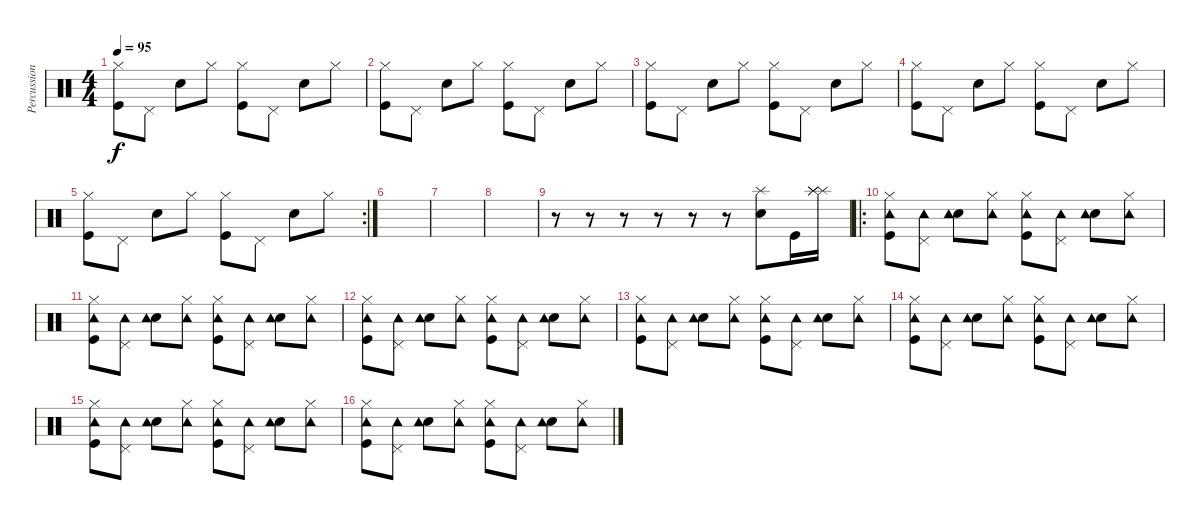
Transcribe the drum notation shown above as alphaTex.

\track ("Percussion" "Percussion") {instrument percussion}
\staff {score}
\articulation defaults
\ts (4 4)
\tempo 95
\clef neutral
\ks c
("Hi-Hat (closed)" "Kick (hit)").8{dy f} "Pedal Hi-Hat (hit)".8 "Electric Snare (hit)".8 "Hi-Hat (closed)".8 ("Hi-Hat (closed)" "Kick (hit)").8 "Pedal Hi-Hat (hit)".8 "Electric Snare (hit)".8 "Hi-Hat (closed)".8 |
("Hi-Hat (closed)" "Kick (hit)").8 "Pedal Hi-Hat (hit)".8 "Electric Snare (hit)".8 "Hi-Hat (closed)".8 ("Hi-Hat (closed)" "Kick (hit)").8 "Pedal Hi-Hat (hit)".8 "Electric Snare (hit)".8 "Hi-Hat (closed)".8 |
("Hi-Hat (closed)" "Kick (hit)").8 "Pedal Hi-Hat (hit)".8 "Electric Snare (hit)".8 "Hi-Hat (closed)".8 ("Hi-Hat (closed)" "Kick (hit)").8 "Pedal Hi-Hat (hit)".8 "Electric Snare (hit)".8 "Hi-Hat (closed)".8 |
("Hi-Hat (closed)" "Kick (hit)").8 "Pedal Hi-Hat (hit)".8 "Electric Snare (hit)".8 "Hi-Hat (closed)".8 ("Hi-Hat (closed)" "Kick (hit)").8 "Pedal Hi-Hat (hit)".8 "Electric Snare (hit)".8 "Hi-Hat (closed)".8 |
\rc 2
("Hi-Hat (closed)" "Kick (hit)").8 "Pedal Hi-Hat (hit)".8 "Electric Snare (hit)".8 "Hi-Hat (closed)".8 ("Hi-Hat (closed)" "Kick (hit)").8 "Pedal Hi-Hat (hit)".8 "Electric Snare (hit)".8 "Hi-Hat (closed)".8 |
|
|
|
r.8 r.8 r.8 r.8 r.8 r.8 ("Splash (hit)" "Snare (hit) 2").8 "Kick (hit)".16 ("Splash (hit)" "Splash (hit)" "Splash (hit)").16 |
\ro
("Hi-Hat (closed)" "Kick (hit)" "Tambourine (hit)").8 ("Pedal Hi-Hat (hit)" "Tambourine (hit)").8 ("Electric Snare (hit)" "Tambourine (hit)").8 ("Hi-Hat (closed)" "Tambourine (hit)").8 ("Hi-Hat (closed)" "Kick (hit)" "Tambourine (hit)").8 ("Pedal Hi-Hat (hit)" "Tambourine (hit)").8 ("Electric Snare (hit)" "Tambourine (hit)").8 ("Hi-Hat (closed)" "Tambourine (hit)").8 |
("Hi-Hat (closed)" "Kick (hit)" "Tambourine (hit)").8 ("Pedal Hi-Hat (hit)" "Tambourine (hit)").8 ("Electric Snare (hit)" "Tambourine (hit)").8 ("Hi-Hat (closed)" "Tambourine (hit)").8 ("Hi-Hat (closed)" "Kick (hit)" "Tambourine (hit)").8 ("Pedal Hi-Hat (hit)" "Tambourine (hit)").8 ("Electric Snare (hit)" "Tambourine (hit)").8 ("Hi-Hat (closed)" "Tambourine (hit)").8 |
("Hi-Hat (closed)" "Kick (hit)" "Tambourine (hit)").8 ("Pedal Hi-Hat (hit)" "Tambourine (hit)").8 ("Electric Snare (hit)" "Tambourine (hit)").8 ("Hi-Hat (closed)" "Tambourine (hit)").8 ("Hi-Hat (closed)" "Kick (hit)" "Tambourine (hit)").8 ("Pedal Hi-Hat (hit)" "Tambourine (hit)").8 ("Electric Snare (hit)" "Tambourine (hit)").8 ("Hi-Hat (closed)" "Tambourine (hit)").8 |
("Hi-Hat (closed)" "Kick (hit)" "Tambourine (hit)").8 ("Pedal Hi-Hat (hit)" "Tambourine (hit)").8 ("Electric Snare (hit)" "Tambourine (hit)").8 ("Hi-Hat (closed)" "Tambourine (hit)").8 ("Hi-Hat (closed)" "Kick (hit)" "Tambourine (hit)").8 ("Pedal Hi-Hat (hit)" "Tambourine (hit)").8 ("Electric Snare (hit)" "Tambourine (hit)").8 ("Hi-Hat (closed)" "Tambourine (hit)").8 |
("Hi-Hat (closed)" "Kick (hit)" "Tambourine (hit)").8 ("Pedal Hi-Hat (hit)" "Tambourine (hit)").8 ("Electric Snare (hit)" "Tambourine (hit)").8 ("Hi-Hat (closed)" "Tambourine (hit)").8 ("Hi-Hat (closed)" "Kick (hit)" "Tambourine (hit)").8 ("Pedal Hi-Hat (hit)" "Tambourine (hit)").8 ("Electric Snare (hit)" "Tambourine (hit)").8 ("Hi-Hat (closed)" "Tambourine (hit)").8 |
("Hi-Hat (closed)" "Kick (hit)" "Tambourine (hit)").8 ("Pedal Hi-Hat (hit)" "Tambourine (hit)").8 ("Electric Snare (hit)" "Tambourine (hit)").8 ("Hi-Hat (closed)" "Tambourine (hit)").8 ("Hi-Hat (closed)" "Kick (hit)" "Tambourine (hit)").8 ("Pedal Hi-Hat (hit)" "Tambourine (hit)").8 ("Electric Snare (hit)" "Tambourine (hit)").8 ("Hi-Hat (closed)" "Tambourine (hit)").8 |
("Hi-Hat (closed)" "Kick (hit)" "Tambourine (hit)").8 ("Pedal Hi-Hat (hit)" "Tambourine (hit)").8 ("Electric Snare (hit)" "Tambourine (hit)").8 ("Hi-Hat (closed)" "Tambourine (hit)").8 ("Hi-Hat (closed)" "Kick (hit)" "Tambourine (hit)").8 ("Pedal Hi-Hat (hit)" "Tambourine (hit)").8 ("Electric Snare (hit)" "Tambourine (hit)").8 ("Hi-Hat (closed)" "Tambourine (hit)").8
